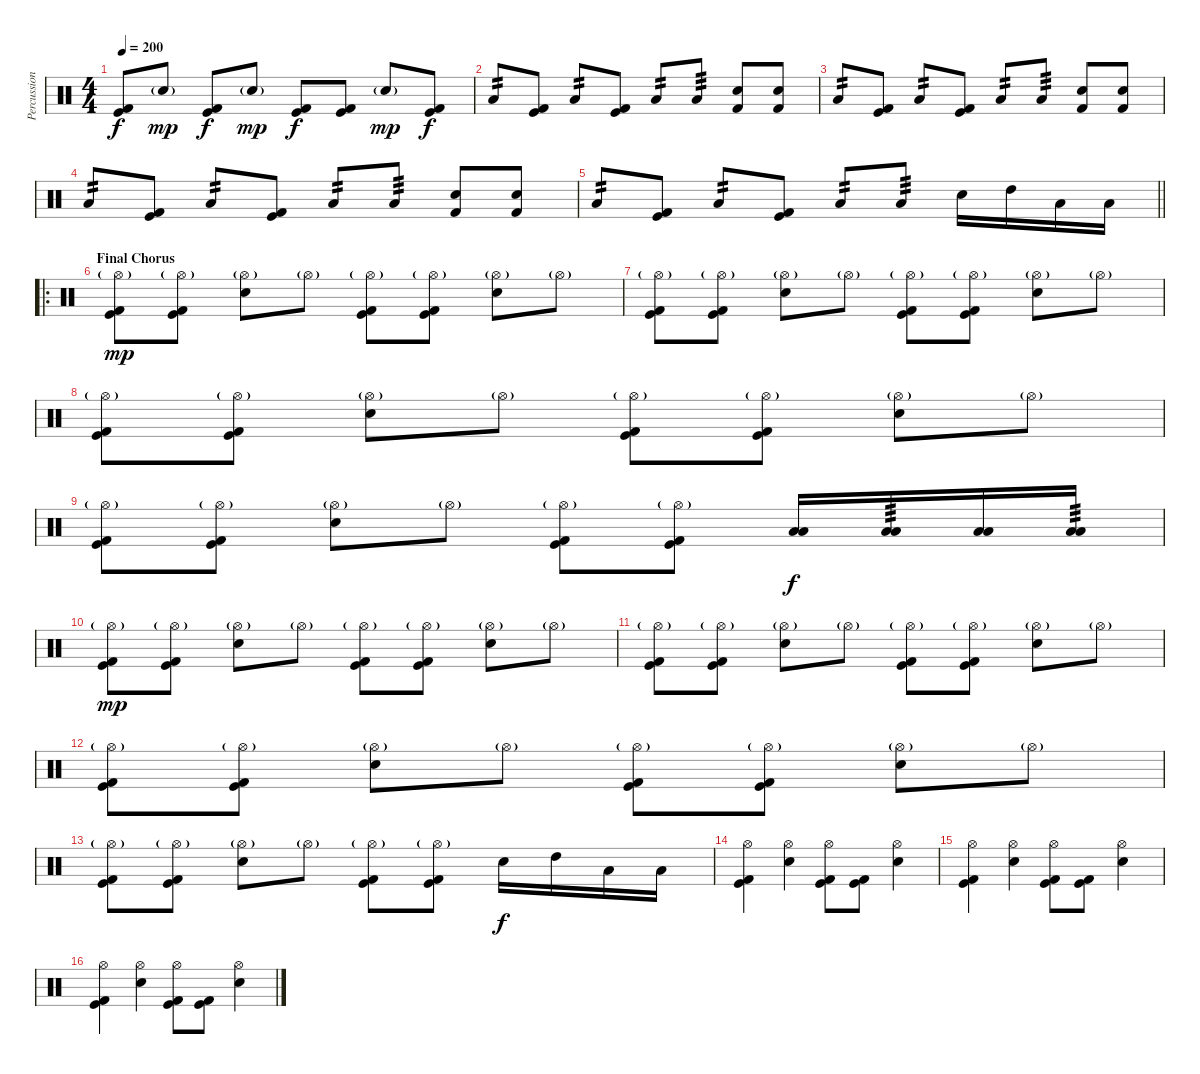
\track ("Percussion" "Percussion") {instrument percussion}
\staff {score}
\articulation defaults
\ts (4 4)
\tempo 200
\clef neutral
\ks c
("Kick (hit)" "Kick (hit) 2").8{dy f} "Snare (hit) 2"{g}.8{dy mp} ("Kick (hit)" "Kick (hit) 2").8{dy f} "Snare (hit) 2"{g}.8{dy mp} ("Kick (hit)" "Kick (hit) 2").8{dy f} ("Kick (hit)" "Kick (hit) 2").8 "Snare (hit) 2"{g}.8{dy mp} ("Kick (hit)" "Kick (hit) 2").8{dy f} |
"Low Floor Tom (hit)".8{tp 2 volume 16} ("Kick (hit) 2" "Kick (hit)").8 "Low Floor Tom (hit)".8{tp 2} ("Kick (hit) 2" "Kick (hit)").8 "Low Tom (hit)".8{tp 2} "Low Floor Tom (hit)".8{tp 3} ("Kick (hit) 2" "Snare (hit) 2").8 ("Kick (hit) 2" "Snare (hit) 2").8 |
"Low Floor Tom (hit)".8{tp 2} ("Kick (hit) 2" "Kick (hit)").8 "Low Floor Tom (hit)".8{tp 2} ("Kick (hit) 2" "Kick (hit)").8 "Low Tom (hit)".8{tp 2} "Low Floor Tom (hit)".8{tp 3} ("Kick (hit) 2" "Snare (hit) 2").8 ("Kick (hit) 2" "Snare (hit) 2").8 |
"Low Floor Tom (hit)".8{tp 2} ("Kick (hit) 2" "Kick (hit)").8 "Low Floor Tom (hit)".8{tp 2} ("Kick (hit) 2" "Kick (hit)").8 "Low Tom (hit)".8{tp 2} "Low Floor Tom (hit)".8{tp 3} ("Kick (hit) 2" "Snare (hit) 2").8 ("Kick (hit) 2" "Snare (hit) 2").8 |
\barLineRight lightlight "Low Floor Tom (hit)".8{tp 2}
("Kick (hit) 2" "Kick (hit)").8 "Low Floor Tom (hit)".8{tp 2} ("Kick (hit) 2" "Kick (hit)").8 "Low Tom (hit)".8{tp 2} "Low Floor Tom (hit)".8{tp 3} "Snare (hit) 2".16 "High Tom (hit)".16 "Low Tom (hit)".16 "Low Floor Tom (hit)".16 |
\ro
\section ("" "Final Chorus")
("Hi-Hat (open)"{g} "Kick (hit)" "Kick (hit) 2").8{dy mp} ("Hi-Hat (open)"{g} "Kick (hit)" "Kick (hit) 2").8 ("Hi-Hat (open)"{g} "Snare (hit) 2").8 "Hi-Hat (open)"{g}.8 ("Hi-Hat (open)"{g} "Kick (hit)" "Kick (hit) 2").8 ("Hi-Hat (open)"{g} "Kick (hit)" "Kick (hit) 2").8 ("Hi-Hat (open)"{g} "Snare (hit) 2").8 "Hi-Hat (open)"{g}.8 |
("Hi-Hat (open)"{g} "Kick (hit)" "Kick (hit) 2").8 ("Hi-Hat (open)"{g} "Kick (hit)" "Kick (hit) 2").8 ("Hi-Hat (open)"{g} "Snare (hit) 2").8 "Hi-Hat (open)"{g}.8 ("Hi-Hat (open)"{g} "Kick (hit)" "Kick (hit) 2").8 ("Hi-Hat (open)"{g} "Kick (hit)" "Kick (hit) 2").8 ("Hi-Hat (open)"{g} "Snare (hit) 2").8 "Hi-Hat (open)"{g}.8 |
("Hi-Hat (open)"{g} "Kick (hit)" "Kick (hit) 2").8 ("Hi-Hat (open)"{g} "Kick (hit)" "Kick (hit) 2").8 ("Hi-Hat (open)"{g} "Snare (hit) 2").8 "Hi-Hat (open)"{g}.8 ("Hi-Hat (open)"{g} "Kick (hit)" "Kick (hit) 2").8 ("Hi-Hat (open)"{g} "Kick (hit)" "Kick (hit) 2").8 ("Hi-Hat (open)"{g} "Snare (hit) 2").8 "Hi-Hat (open)"{g}.8 |
("Hi-Hat (open)"{g} "Kick (hit)" "Kick (hit) 2").8 ("Hi-Hat (open)"{g} "Kick (hit)" "Kick (hit) 2").8 ("Hi-Hat (open)"{g} "Snare (hit) 2").8 "Hi-Hat (open)"{g}.8 ("Hi-Hat (open)"{g} "Kick (hit)" "Kick (hit) 2").8 ("Hi-Hat (open)"{g} "Kick (hit)" "Kick (hit) 2").8 ("Low Tom (hit)" "Low Floor Tom (hit)").16{dy f} ("Low Tom (hit)" "Low Floor Tom (hit)").16{tp 3} ("Low Tom (hit)" "Low Floor Tom (hit)").16 ("Low Tom (hit)" "Low Floor Tom (hit)").16{tp 3} |
("Hi-Hat (open)"{g} "Kick (hit)" "Kick (hit) 2").8{dy mp} ("Hi-Hat (open)"{g} "Kick (hit)" "Kick (hit) 2").8 ("Hi-Hat (open)"{g} "Snare (hit) 2").8 "Hi-Hat (open)"{g}.8 ("Hi-Hat (open)"{g} "Kick (hit)" "Kick (hit) 2").8 ("Hi-Hat (open)"{g} "Kick (hit)" "Kick (hit) 2").8 ("Hi-Hat (open)"{g} "Snare (hit) 2").8 "Hi-Hat (open)"{g}.8 |
("Hi-Hat (open)"{g} "Kick (hit)" "Kick (hit) 2").8 ("Hi-Hat (open)"{g} "Kick (hit)" "Kick (hit) 2").8 ("Hi-Hat (open)"{g} "Snare (hit) 2").8 "Hi-Hat (open)"{g}.8 ("Hi-Hat (open)"{g} "Kick (hit)" "Kick (hit) 2").8 ("Hi-Hat (open)"{g} "Kick (hit)" "Kick (hit) 2").8 ("Hi-Hat (open)"{g} "Snare (hit) 2").8 "Hi-Hat (open)"{g}.8 |
("Hi-Hat (open)"{g} "Kick (hit)" "Kick (hit) 2").8 ("Hi-Hat (open)"{g} "Kick (hit)" "Kick (hit) 2").8 ("Hi-Hat (open)"{g} "Snare (hit) 2").8 "Hi-Hat (open)"{g}.8 ("Hi-Hat (open)"{g} "Kick (hit)" "Kick (hit) 2").8 ("Hi-Hat (open)"{g} "Kick (hit)" "Kick (hit) 2").8 ("Hi-Hat (open)"{g} "Snare (hit) 2").8 "Hi-Hat (open)"{g}.8 |
("Hi-Hat (open)"{g} "Kick (hit)" "Kick (hit) 2").8 ("Hi-Hat (open)"{g} "Kick (hit)" "Kick (hit) 2").8 ("Hi-Hat (open)"{g} "Snare (hit) 2").8 "Hi-Hat (open)"{g}.8 ("Hi-Hat (open)"{g} "Kick (hit)" "Kick (hit) 2").8 ("Hi-Hat (open)"{g} "Kick (hit)" "Kick (hit) 2").8 "Snare (hit) 2".16{dy f} "High Tom (hit)".16 "Low Tom (hit)".16 "Low Floor Tom (hit)".16 |
("Hi-Hat (open)" "Kick (hit)" "Kick (hit) 2").4 ("Hi-Hat (open)" "Snare (hit) 2").4 ("Hi-Hat (open)" "Kick (hit)" "Kick (hit) 2").8 ("Kick (hit)" "Kick (hit) 2").8 ("Hi-Hat (open)" "Snare (hit) 2").4 |
("Hi-Hat (open)" "Kick (hit)" "Kick (hit) 2").4 ("Hi-Hat (open)" "Snare (hit) 2").4 ("Hi-Hat (open)" "Kick (hit)" "Kick (hit) 2").8 ("Kick (hit)" "Kick (hit) 2").8 ("Hi-Hat (open)" "Snare (hit) 2").4 |
("Hi-Hat (open)" "Kick (hit)" "Kick (hit) 2").4 ("Hi-Hat (open)" "Snare (hit) 2").4 ("Hi-Hat (open)" "Kick (hit)" "Kick (hit) 2").8 ("Kick (hit)" "Kick (hit) 2").8 ("Hi-Hat (open)" "Snare (hit) 2").4
